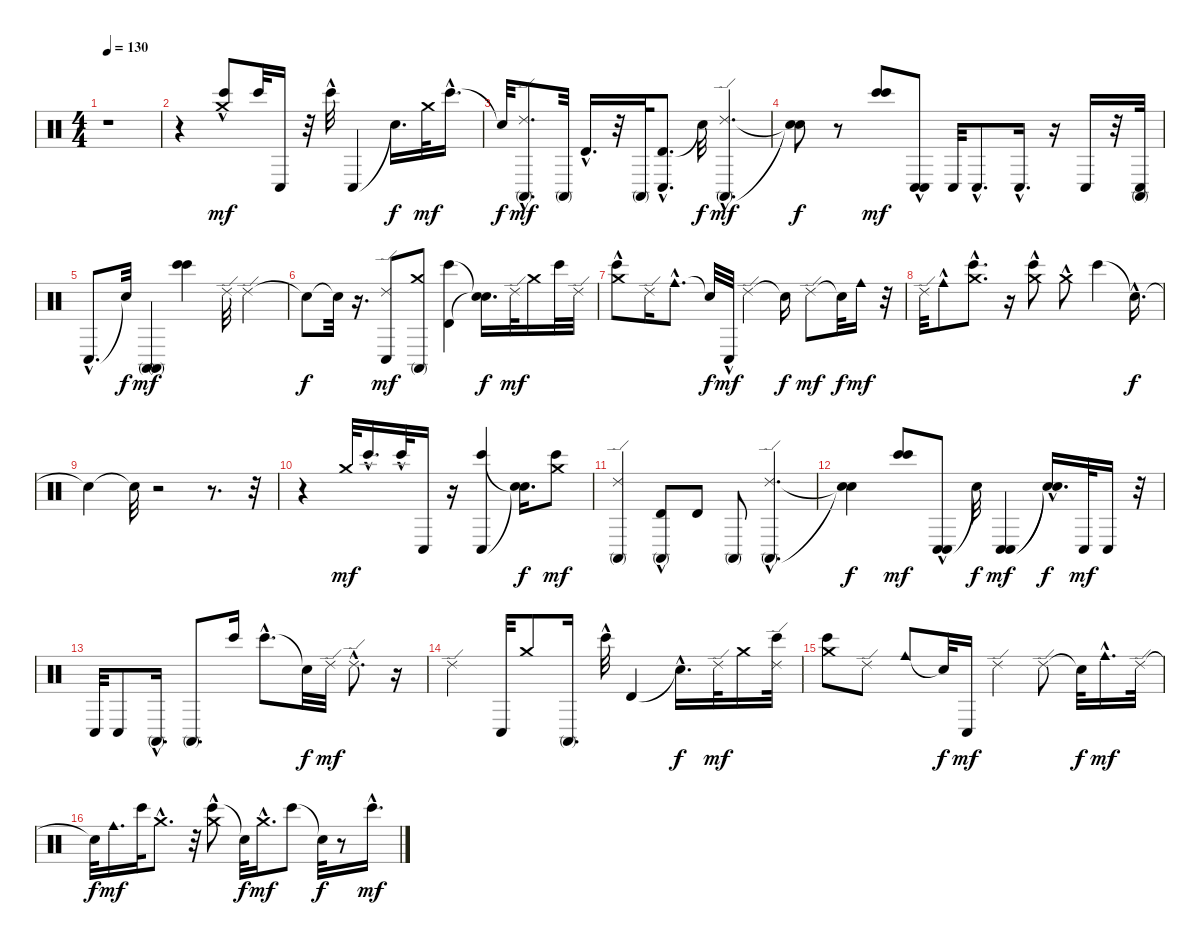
\track "" {instrument percussion}
\staff {score}
\articulation defaults
\ts (4 4)
\tempo 130
\clef neutral
\ks c
r.1{dy mf} |
r.4 ("Crash medium (hit)"{hac} "Bongo High (hit)").8 "Bongo High (hit)".32 "Conga low (hit)".16 r.32 "Bongo High (hit)"{hac}.32 "Conga low (hit)".4 "Snare (hit)"{t}.16{d dy f} "Crash medium (hit)".32{dy mf} "Bongo High (hit)"{hac}.16{d} |
"Snare (hit)"{t}.32{dy f} ("Ride (edge) 2" "Conga high (mute)"{hac}).8{d dy mf} "Conga high (mute)".32 "Timbale high (hit)"{hac}.16{d} r.32 "Conga high (mute)".32 ("Timbale high (hit)"{hac} "Conga low (hit)").8{d} "Snare (hit)"{t}.32{dy f} ("Ride (edge) 2"{hac} "Conga high (mute)"{hac}).4{d dy mf} |
("Snare (hit)"{t} "Snare (hit)"{t}).8{dy f} r.8 ("Bongo High (hit)" "Bongo High (hit)").8{dy mf} ("Conga low (hit)" "Conga low (hit)"{hac}).8 "Conga low (hit)".32 "Conga low (hit)"{hac}.8{d} "Conga low (hit)"{hac}.16{d} r.16 "Conga low (hit)".16 r.32 ("Conga high (mute)" "Conga low (hit)").32 |
"Conga low (hit)"{hac}.8{d} "Snare (hit)"{t}.32{dy f} ("Conga high (mute)" "Conga high (mute)").4{dy mf} ("Bongo High (hit)" "Bongo High (hit)").4 "Ride (edge) 2".32 "Ride (edge) 2".4 |
"Snare (hit)"{t}.8{dy f} "Snare (hit)"{t}.32 r.16{d} ("Conga low (hit)" "Ride (edge) 2").8{dy mf} ("Conga high (mute)" "Crash medium (hit)").8 ("Bongo High (hit)" "Timbale high (hit)").4 ("Snare (hit)"{t} "Snare (hit)"{t}).16{d dy f} "Ride (edge) 2".32{dy mf} "Crash medium (hit)".16 "Bongo High (hit)".32 "Ride (edge) 2".32 |
("Bongo High (hit)" "Crash medium (hit)"{hac}).8 "Ride (edge) 2".16 "Cowbell medium (hit)"{hac}.8{d} "Snare (hit)"{t}.32{dy f} "Conga low (hit)"{hac}.32{dy mf} "Ride (edge) 2".4 "Snare (hit)"{t}.16{dy f} "Ride (edge) 2".8{dy mf} "Snare (hit)"{t}.32{dy f} "Cowbell medium (hit)".16{dy mf} r.32 |
"Ride (edge) 2".32 "Cowbell medium (hit)"{hac}.8 ("Bongo High (hit)" "Crash medium (hit)"{hac}).8{d} r.16 ("Crash medium (hit)"{hac} "Bongo High (hit)").8 "Crash medium (hit)"{hac}.8 "Bongo High (hit)".4 "Snare (hit)"{hac t}.16{d dy f} |
"Snare (hit)"{t}.4 "Snare (hit)"{t}.32 r.2 r.8{d} r.32 |
r.4 "Crash medium (hit)".32{dy mf} "Bongo High (hit)"{hac}.16{d} "Bongo High (hit)"{hac}.32 "Conga low (hit)".16 r.16 ("Bongo High (hit)" "Conga low (hit)").4 ("Snare (hit)"{t} "Snare (hit)"{t}).16{d dy f} ("Crash medium (hit)" "Bongo High (hit)").8{dy mf} |
("Ride (edge) 2" "Conga high (mute)").4 ("Timbale high (hit)"{hac} "Conga high (mute)").8 "Timbale high (hit)".8 "Conga high (mute)".8 ("Conga high (mute)"{hac} "Ride (edge) 2"{hac}).4{d} |
("Snare (hit)"{t} "Snare (hit)"{t}).4{dy f} ("Bongo High (hit)" "Bongo High (hit)").8{dy mf} ("Conga low (hit)" "Conga low (hit)"{hac}).8 "Snare (hit)"{t}.32{dy f} ("Conga low (hit)" "Conga low (hit)").4{dy mf} ("Snare (hit)"{hac t} "Snare (hit)"{t}).16{d dy f} "Conga low (hit)".32{dy mf} "Conga low (hit)".16 r.32 |
"Conga low (hit)".32 "Conga low (hit)".8 "Conga high (mute)"{hac}.16{d} "Conga high (mute)".8{d} "Bongo High (hit)".16 "Bongo High (hit)"{hac}.8{d} "Snare (hit)"{t}.32{dy f} "Ride (edge) 2".32{dy mf} "Ride (edge) 2"{hac}.8{d} r.16 |
"Ride (edge) 2".4 "Conga low (hit)".32 "Crash medium (hit)".8 "Conga high (mute)".16{d} "Bongo High (hit)"{hac}.32 "Timbale high (hit)".4 "Snare (hit)"{hac t}.16{d dy f} "Ride (edge) 2".32{dy mf} "Crash medium (hit)".16 ("Bongo High (hit)" "Ride (edge) 2").32 |
("Bongo High (hit)" "Crash medium (hit)").8 "Ride (edge) 2".8 "Cowbell medium (hit)".8 "Snare (hit)"{t}.32{dy f} "Conga low (hit)".16{dy mf} "Ride (edge) 2".4 "Ride (edge) 2".8 "Snare (hit)"{t}.32{dy f} "Cowbell medium (hit)"{hac}.16{d dy mf} "Ride (edge) 2".32 |
"Snare (hit)"{t}.32{dy f} "Cowbell medium (hit)".16{d dy mf} "Bongo High (hit)".32 "Crash medium (hit)"{hac}.8{d} r.32 ("Bongo High (hit)" "Crash medium (hit)"{hac}).8 "Snare (hit)"{t}.32{dy f} "Crash medium (hit)"{hac}.16{d dy mf} "Bongo High (hit)".8 "Snare (hit)"{t}.32{dy f} r.8 "Bongo High (hit)"{hac}.16{d dy mf}
